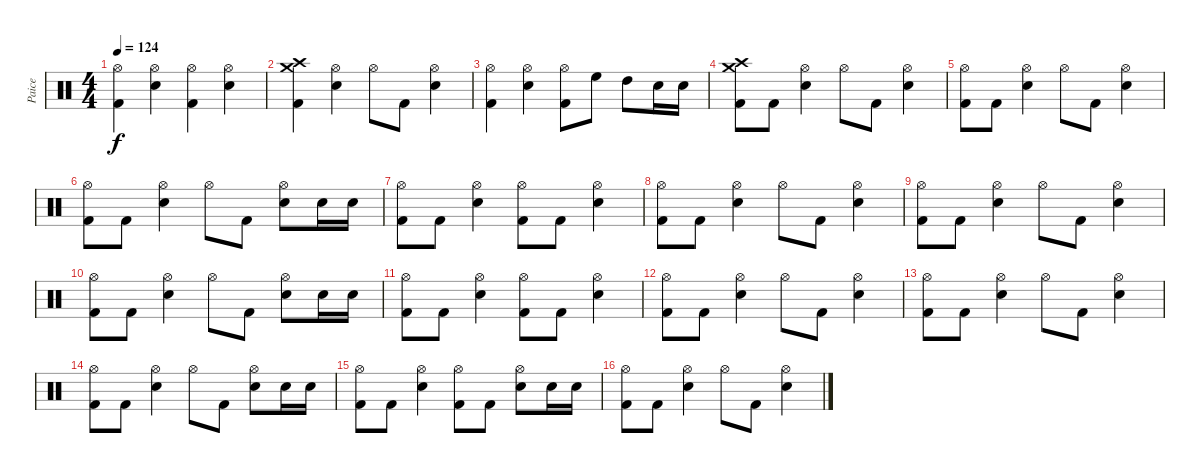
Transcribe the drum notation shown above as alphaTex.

\track ("Paice" "Paice") {instrument percussion}
\staff {score}
\articulation defaults
\ts (4 4)
\tempo 124
\clef neutral
\ks c
("Hi-Hat (open)" "Kick (hit) 2").4{dy f} ("Hi-Hat (open)" "Electric Snare (hit)").4 ("Hi-Hat (open)" "Kick (hit) 2").4 ("Hi-Hat (open)" "Electric Snare (hit)").4 |
("Crash high (hit)" "Crash medium (hit)" "Kick (hit) 2").4 ("Hi-Hat (open)" "Electric Snare (hit)").4 "Hi-Hat (open)".8 "Kick (hit) 2".8 ("Hi-Hat (open)" "Electric Snare (hit)").4 |
("Hi-Hat (open)" "Kick (hit) 2").4 ("Hi-Hat (open)" "Electric Snare (hit)").4 ("Hi-Hat (open)" "Kick (hit) 2").8 "High Floor Tom (hit)".8 "High Tom (hit)".8 "Electric Snare (hit)".16 "Electric Snare (hit)".16 |
("Crash high (hit)" "Crash medium (hit)" "Kick (hit) 2").8 "Kick (hit) 2".8 ("Hi-Hat (open)" "Electric Snare (hit)").4 "Hi-Hat (open)".8 "Kick (hit) 2".8 ("Hi-Hat (open)" "Electric Snare (hit)").4 |
("Hi-Hat (open)" "Kick (hit) 2").8 "Kick (hit) 2".8 ("Hi-Hat (open)" "Electric Snare (hit)").4 "Hi-Hat (open)".8 "Kick (hit) 2".8 ("Hi-Hat (open)" "Electric Snare (hit)").4 |
("Hi-Hat (open)" "Kick (hit) 2").8 "Kick (hit) 2".8 ("Hi-Hat (open)" "Electric Snare (hit)").4 "Hi-Hat (open)".8 "Kick (hit) 2".8 ("Hi-Hat (open)" "Electric Snare (hit)").8 "Electric Snare (hit)".16 "Electric Snare (hit)".16 |
("Hi-Hat (open)" "Kick (hit) 2").8 "Kick (hit) 2".8 ("Hi-Hat (open)" "Electric Snare (hit)").4 ("Hi-Hat (open)" "Kick (hit) 2").8 "Kick (hit) 2".8 ("Hi-Hat (open)" "Electric Snare (hit)").4 |
("Hi-Hat (open)" "Kick (hit) 2").8 "Kick (hit) 2".8 ("Hi-Hat (open)" "Electric Snare (hit)").4 "Hi-Hat (open)".8 "Kick (hit) 2".8 ("Hi-Hat (open)" "Electric Snare (hit)").4 |
("Hi-Hat (open)" "Kick (hit) 2").8 "Kick (hit) 2".8 ("Hi-Hat (open)" "Electric Snare (hit)").4 "Hi-Hat (open)".8 "Kick (hit) 2".8 ("Hi-Hat (open)" "Electric Snare (hit)").4 |
("Hi-Hat (open)" "Kick (hit) 2").8 "Kick (hit) 2".8 ("Hi-Hat (open)" "Electric Snare (hit)").4 "Hi-Hat (open)".8 "Kick (hit) 2".8 ("Hi-Hat (open)" "Electric Snare (hit)").8 "Electric Snare (hit)".16 "Electric Snare (hit)".16 |
("Hi-Hat (open)" "Kick (hit) 2").8 "Kick (hit) 2".8 ("Hi-Hat (open)" "Electric Snare (hit)").4 ("Hi-Hat (open)" "Kick (hit) 2").8 "Kick (hit) 2".8 ("Hi-Hat (open)" "Electric Snare (hit)").4 |
("Hi-Hat (open)" "Kick (hit) 2").8 "Kick (hit) 2".8 ("Hi-Hat (open)" "Electric Snare (hit)").4 "Hi-Hat (open)".8 "Kick (hit) 2".8 ("Hi-Hat (open)" "Electric Snare (hit)").4 |
("Hi-Hat (open)" "Kick (hit) 2").8 "Kick (hit) 2".8 ("Hi-Hat (open)" "Electric Snare (hit)").4 "Hi-Hat (open)".8 "Kick (hit) 2".8 ("Hi-Hat (open)" "Electric Snare (hit)").4 |
("Hi-Hat (open)" "Kick (hit) 2").8 "Kick (hit) 2".8 ("Hi-Hat (open)" "Electric Snare (hit)").4 "Hi-Hat (open)".8 "Kick (hit) 2".8 ("Hi-Hat (open)" "Electric Snare (hit)").8 "Electric Snare (hit)".16 "Electric Snare (hit)".16 |
("Hi-Hat (open)" "Kick (hit) 2").8 "Kick (hit) 2".8 ("Hi-Hat (open)" "Electric Snare (hit)").4 ("Hi-Hat (open)" "Kick (hit) 2").8 "Kick (hit) 2".8 ("Hi-Hat (open)" "Electric Snare (hit)").8 "Electric Snare (hit)".16 "Electric Snare (hit)".16 |
("Hi-Hat (open)" "Kick (hit) 2").8 "Kick (hit) 2".8 ("Hi-Hat (open)" "Electric Snare (hit)").4 "Hi-Hat (open)".8 "Kick (hit) 2".8 ("Hi-Hat (open)" "Electric Snare (hit)").4
